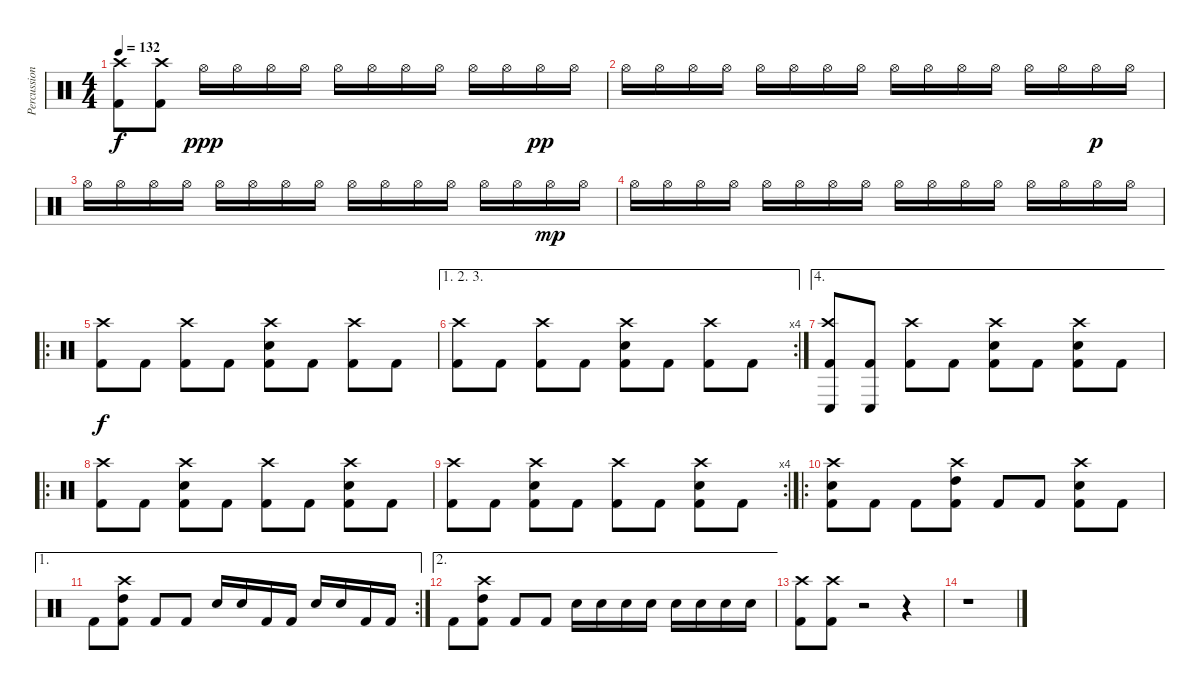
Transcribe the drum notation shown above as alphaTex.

\track ("Percussion" "Percussion") {instrument percussion}
\staff {score}
\articulation defaults
\ts (4 4)
\tempo 132
\clef neutral
\ks c
("Crash high (hit)" "Kick (hit) 2").8{dy f} ("Crash high (hit)" "Kick (hit) 2").8 "Hi-Hat (open)".16{dy ppp} "Hi-Hat (open)".16 "Hi-Hat (open)".16 "Hi-Hat (open)".16 "Hi-Hat (open)".16 "Hi-Hat (open)".16 "Hi-Hat (open)".16 "Hi-Hat (open)".16 "Hi-Hat (open)".16 "Hi-Hat (open)".16 "Hi-Hat (open)".16{dy pp} "Hi-Hat (open)".16 |
"Hi-Hat (open)".16 "Hi-Hat (open)".16 "Hi-Hat (open)".16 "Hi-Hat (open)".16 "Hi-Hat (open)".16 "Hi-Hat (open)".16 "Hi-Hat (open)".16 "Hi-Hat (open)".16 "Hi-Hat (open)".16 "Hi-Hat (open)".16 "Hi-Hat (open)".16 "Hi-Hat (open)".16 "Hi-Hat (open)".16 "Hi-Hat (open)".16 "Hi-Hat (open)".16{dy p} "Hi-Hat (open)".16 |
"Hi-Hat (open)".16 "Hi-Hat (open)".16 "Hi-Hat (open)".16 "Hi-Hat (open)".16 "Hi-Hat (open)".16 "Hi-Hat (open)".16 "Hi-Hat (open)".16 "Hi-Hat (open)".16 "Hi-Hat (open)".16 "Hi-Hat (open)".16 "Hi-Hat (open)".16 "Hi-Hat (open)".16 "Hi-Hat (open)".16 "Hi-Hat (open)".16 "Hi-Hat (open)".16{dy mp} "Hi-Hat (open)".16 |
"Hi-Hat (open)".16 "Hi-Hat (open)".16 "Hi-Hat (open)".16 "Hi-Hat (open)".16 "Hi-Hat (open)".16 "Hi-Hat (open)".16 "Hi-Hat (open)".16 "Hi-Hat (open)".16 "Hi-Hat (open)".16 "Hi-Hat (open)".16 "Hi-Hat (open)".16 "Hi-Hat (open)".16 "Hi-Hat (open)".16 "Hi-Hat (open)".16 "Hi-Hat (open)".16 "Hi-Hat (open)".16 |
\ro
("Crash high (hit)" "Kick (hit) 2").8{dy f} "Kick (hit) 2".8 ("Crash high (hit)" "Kick (hit) 2").8 "Kick (hit) 2".8 ("Crash high (hit)" "Electric Snare (hit)" "Kick (hit) 2").8 "Kick (hit) 2".8 ("Crash high (hit)" "Kick (hit) 2").8 "Kick (hit) 2".8 |
\ae (1 2 3)
\rc 4
("Crash high (hit)" "Kick (hit) 2").8 "Kick (hit) 2".8 ("Crash high (hit)" "Kick (hit) 2").8 "Kick (hit) 2".8 ("Crash high (hit)" "Electric Snare (hit)" "Kick (hit) 2").8 "Kick (hit) 2".8 ("Crash high (hit)" "Kick (hit) 2").8 "Kick (hit) 2".8 |
\ae 4
("Crash high (hit)" "Conga low (hit)" "Kick (hit) 2").8 ("Conga low (hit)" "Kick (hit) 2").8 ("Crash high (hit)" "Kick (hit) 2").8 "Kick (hit) 2".8 ("Crash high (hit)" "Electric Snare (hit)" "Kick (hit) 2").8 "Kick (hit) 2".8 ("Crash high (hit)" "Electric Snare (hit)" "Kick (hit) 2").8 "Kick (hit) 2".8 |
\ro
("Crash high (hit)" "Kick (hit) 2").8 "Kick (hit) 2".8 ("Crash high (hit)" "Electric Snare (hit)" "Kick (hit) 2").8 "Kick (hit) 2".8 ("Crash high (hit)" "Kick (hit) 2").8 "Kick (hit) 2".8 ("Crash high (hit)" "Electric Snare (hit)" "Kick (hit) 2").8 "Kick (hit) 2".8 |
\rc 4
("Crash high (hit)" "Kick (hit) 2").8 "Kick (hit) 2".8 ("Crash high (hit)" "Electric Snare (hit)" "Kick (hit) 2").8 "Kick (hit) 2".8 ("Crash high (hit)" "Kick (hit) 2").8 "Kick (hit) 2".8 ("Crash high (hit)" "Electric Snare (hit)" "Kick (hit) 2").8 "Kick (hit) 2".8 |
\ro
("Crash high (hit)" "Electric Snare (hit)" "Kick (hit) 2").8 "Kick (hit) 2".8 "Kick (hit) 2".8 ("Crash high (hit)" "High Tom (hit)" "Kick (hit) 2").8 "Kick (hit) 2".8 "Kick (hit) 2".8 ("Crash high (hit)" "Electric Snare (hit)" "Kick (hit) 2").8 "Kick (hit) 2".8 |
\ae 1
\rc 2 "Kick (hit) 2".8
("Crash high (hit)" "High Tom (hit)" "Kick (hit) 2").8 "Kick (hit) 2".8 "Kick (hit) 2".8 "Electric Snare (hit)".16 "Electric Snare (hit)".16 "Kick (hit) 2".16 "Kick (hit) 2".16 "Electric Snare (hit)".16 "Electric Snare (hit)".16 "Kick (hit) 2".16 "Kick (hit) 2".16 |
\ae 2 "Kick (hit) 2".8
("Crash high (hit)" "High Tom (hit)" "Kick (hit) 2").8 "Kick (hit) 2".8 "Kick (hit) 2".8 "Electric Snare (hit)".16 "Electric Snare (hit)".16 "Electric Snare (hit)".16 "Electric Snare (hit)".16 "Electric Snare (hit)".16 "Electric Snare (hit)".16 "Electric Snare (hit)".16 "Electric Snare (hit)".16 |
("Crash high (hit)" "Kick (hit) 2").8 ("Crash high (hit)" "Kick (hit) 2").8 r.2 r.4 |
r.1
